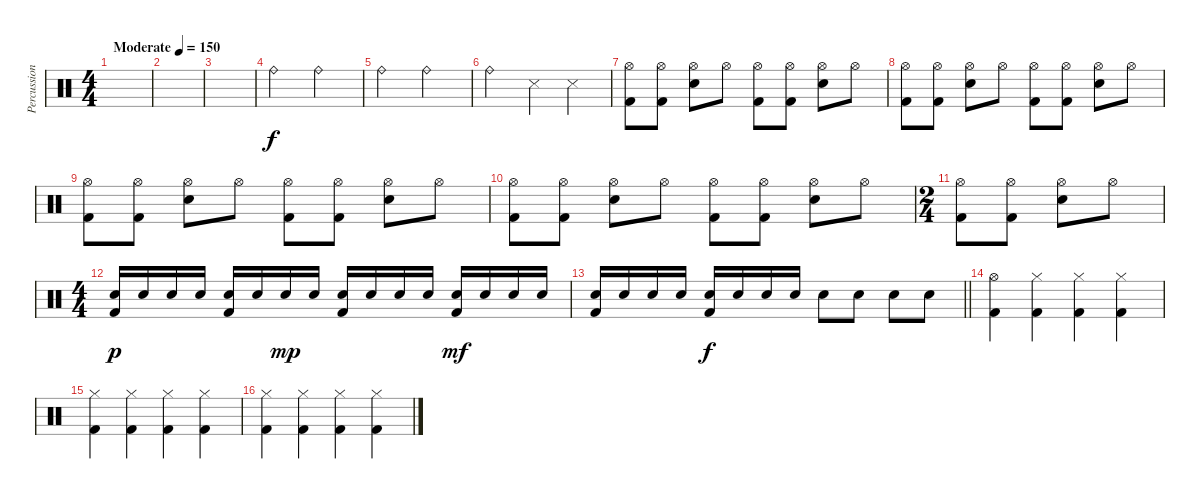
\track ("Percussion" "Percussion") {instrument percussion}
\staff
\articulation defaults
\ts (4 4)
\tempo (150 "Moderate")
\clef neutral
\ks c
|
|
|
"Ride (bell)".2 "Ride (bell)".2 |
"Ride (bell)".2 "Ride (bell)".2 |
"Ride (bell)".2 "Snare (side stick) 3".4 "Snare (side stick) 3".4 |
("Hi-Hat (open)" "Kick (hit) 2").8 ("Hi-Hat (open)" "Kick (hit) 2").8 ("Hi-Hat (open)" "Snare (hit) 2").8 "Hi-Hat (open)".8 ("Hi-Hat (open)" "Kick (hit) 2").8 ("Hi-Hat (open)" "Kick (hit) 2").8 ("Hi-Hat (open)" "Snare (hit) 2").8 "Hi-Hat (open)".8 |
("Hi-Hat (open)" "Kick (hit) 2").8 ("Hi-Hat (open)" "Kick (hit) 2").8 ("Hi-Hat (open)" "Snare (hit) 2").8 "Hi-Hat (open)".8 ("Hi-Hat (open)" "Kick (hit) 2").8 ("Hi-Hat (open)" "Kick (hit) 2").8 ("Hi-Hat (open)" "Snare (hit) 2").8 "Hi-Hat (open)".8 |
("Hi-Hat (open)" "Kick (hit) 2").8 ("Hi-Hat (open)" "Kick (hit) 2").8 ("Hi-Hat (open)" "Snare (hit) 2").8 "Hi-Hat (open)".8 ("Hi-Hat (open)" "Kick (hit) 2").8 ("Hi-Hat (open)" "Kick (hit) 2").8 ("Hi-Hat (open)" "Snare (hit) 2").8 "Hi-Hat (open)".8 |
("Hi-Hat (open)" "Kick (hit) 2").8 ("Hi-Hat (open)" "Kick (hit) 2").8 ("Hi-Hat (open)" "Snare (hit) 2").8 "Hi-Hat (open)".8 ("Hi-Hat (open)" "Kick (hit) 2").8 ("Hi-Hat (open)" "Kick (hit) 2").8 ("Hi-Hat (open)" "Snare (hit) 2").8 "Hi-Hat (open)".8 |
\ts (2 4)
("Hi-Hat (open)" "Kick (hit) 2").8 ("Hi-Hat (open)" "Kick (hit) 2").8 ("Hi-Hat (open)" "Snare (hit) 2").8 "Hi-Hat (open)".8 |
\ts (4 4)
("Snare (hit) 2" "Kick (hit) 2").16{dy p} "Snare (hit) 2".16 "Snare (hit) 2".16 "Snare (hit) 2".16 ("Snare (hit) 2" "Kick (hit) 2").16 "Snare (hit) 2".16 "Snare (hit) 2".16{dy mp} "Snare (hit) 2".16 ("Snare (hit) 2" "Kick (hit) 2").16 "Snare (hit) 2".16 "Snare (hit) 2".16 "Snare (hit) 2".16 ("Snare (hit) 2" "Kick (hit) 2").16{dy mf} "Snare (hit) 2".16 "Snare (hit) 2".16 "Snare (hit) 2".16 |
\barLineRight lightlight
("Snare (hit) 2" "Kick (hit) 2").16 "Snare (hit) 2".16 "Snare (hit) 2".16 "Snare (hit) 2".16 ("Snare (hit) 2" "Kick (hit) 2").16{dy f} "Snare (hit) 2".16 "Snare (hit) 2".16 "Snare (hit) 2".16 "Snare (hit) 2".8 "Snare (hit) 2".8 "Snare (hit) 2".8 "Snare (hit) 2".8 |
("Hi-Hat (open)" "Kick (hit) 2").4 ("Hi-Hat (closed)" "Kick (hit) 2").4 ("Hi-Hat (closed)" "Kick (hit) 2").4 ("Hi-Hat (closed)" "Kick (hit) 2").4 |
("Hi-Hat (closed)" "Kick (hit) 2").4 ("Hi-Hat (closed)" "Kick (hit) 2").4 ("Hi-Hat (closed)" "Kick (hit) 2").4 ("Hi-Hat (closed)" "Kick (hit) 2").4 |
("Hi-Hat (closed)" "Kick (hit) 2").4 ("Hi-Hat (closed)" "Kick (hit) 2").4 ("Hi-Hat (closed)" "Kick (hit) 2").4 ("Hi-Hat (closed)" "Kick (hit) 2").4
